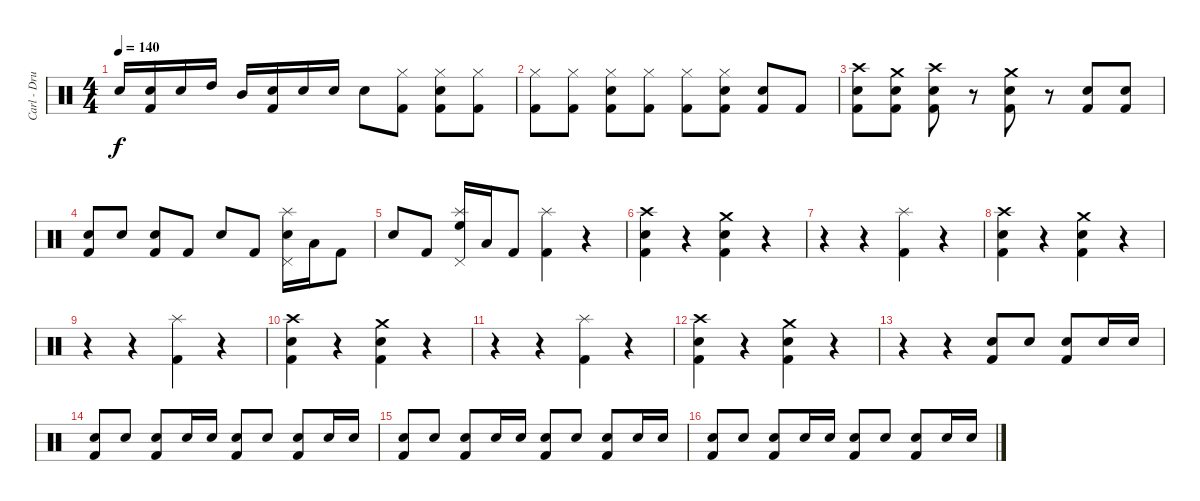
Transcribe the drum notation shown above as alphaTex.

\track ("Carl - Drums" "Carl - Dru") {instrument percussion}
\staff {score}
\articulation defaults
\ts (4 4)
\tempo 140
\clef neutral
\ks c "Electric Snare (hit)".16{dy f}
("Electric Snare (hit)" "Kick (hit) 2").16 "Electric Snare (hit)".16 "High Tom (hit)".16 "Mid Tom (hit)".16 ("Electric Snare (hit)" "Kick (hit) 2").16 "Electric Snare (hit)".16 "Electric Snare (hit)".16 "Electric Snare (hit)".8 ("Hi-Hat (closed)" "Kick (hit) 2").8 ("Hi-Hat (closed)" "Electric Snare (hit)" "Kick (hit) 2").8 ("Hi-Hat (closed)" "Kick (hit) 2").8 |
("Hi-Hat (closed)" "Kick (hit) 2").8 ("Hi-Hat (closed)" "Kick (hit) 2").8 ("Hi-Hat (closed)" "Electric Snare (hit)" "Kick (hit) 2").8 ("Hi-Hat (closed)" "Kick (hit) 2").8 ("Hi-Hat (closed)" "Kick (hit) 2").8 ("Hi-Hat (closed)" "Electric Snare (hit)" "Kick (hit) 2").8 ("Electric Snare (hit)" "Kick (hit) 2").8 "Kick (hit) 2".8 |
("Crash high (hit)" "Electric Snare (hit)" "Kick (hit) 2").8 ("Crash medium (hit)" "Electric Snare (hit)" "Kick (hit) 2").8 ("Crash high (hit)" "Electric Snare (hit)" "Kick (hit) 2").8 r.8 ("Crash medium (hit)" "Electric Snare (hit)" "Kick (hit) 2").8 r.8 ("Electric Snare (hit)" "Kick (hit) 2").8 ("Electric Snare (hit)" "Kick (hit) 2").8 |
("Electric Snare (hit)" "Kick (hit) 2").8 "Electric Snare (hit)".8 ("Electric Snare (hit)" "Kick (hit) 2").8 "Kick (hit) 2".8 "Electric Snare (hit)".8 "Kick (hit) 2".8 ("Pedal Hi-Hat (hit)" "Electric Snare (hit)" "Splash (hit)").16 "Low Tom (hit)".16 "Kick (hit) 2".8 |
"Electric Snare (hit)".8 "Kick (hit) 2".8 ("Pedal Hi-Hat (hit)" "High Floor Tom (hit)" "Splash (hit)").16 "Low Tom (hit)".16 "Kick (hit) 2".8 ("Splash (hit)" "Kick (hit) 2").4 r.4 |
("Crash high (hit)" "Electric Snare (hit)" "Kick (hit) 2").4 r.4 ("Crash medium (hit)" "Electric Snare (hit)" "Kick (hit) 2").4 r.4 |
r.4 r.4 ("Splash (hit)" "Kick (hit) 2").4 r.4 |
("Crash high (hit)" "Electric Snare (hit)" "Kick (hit) 2").4 r.4 ("Crash medium (hit)" "Electric Snare (hit)" "Kick (hit) 2").4 r.4 |
r.4 r.4 ("Splash (hit)" "Kick (hit) 2").4 r.4 |
("Crash high (hit)" "Electric Snare (hit)" "Kick (hit) 2").4 r.4 ("Crash medium (hit)" "Electric Snare (hit)" "Kick (hit) 2").4 r.4 |
r.4 r.4 ("Splash (hit)" "Kick (hit) 2").4 r.4 |
("Crash high (hit)" "Electric Snare (hit)" "Kick (hit) 2").4 r.4 ("Crash medium (hit)" "Electric Snare (hit)" "Kick (hit) 2").4 r.4 |
r.4 r.4 ("Electric Snare (hit)" "Kick (hit) 2").8 "Electric Snare (hit)".8 ("Electric Snare (hit)" "Kick (hit) 2").8 "Electric Snare (hit)".16 "Electric Snare (hit)".16 |
("Electric Snare (hit)" "Kick (hit) 2").8 "Electric Snare (hit)".8 ("Electric Snare (hit)" "Kick (hit) 2").8 "Electric Snare (hit)".16 "Electric Snare (hit)".16 ("Electric Snare (hit)" "Kick (hit) 2").8 "Electric Snare (hit)".8 ("Electric Snare (hit)" "Kick (hit) 2").8 "Electric Snare (hit)".16 "Electric Snare (hit)".16 |
("Electric Snare (hit)" "Kick (hit) 2").8 "Electric Snare (hit)".8 ("Electric Snare (hit)" "Kick (hit) 2").8 "Electric Snare (hit)".16 "Electric Snare (hit)".16 ("Electric Snare (hit)" "Kick (hit) 2").8 "Electric Snare (hit)".8 ("Electric Snare (hit)" "Kick (hit) 2").8 "Electric Snare (hit)".16 "Electric Snare (hit)".16 |
("Electric Snare (hit)" "Kick (hit) 2").8 "Electric Snare (hit)".8 ("Electric Snare (hit)" "Kick (hit) 2").8 "Electric Snare (hit)".16 "Electric Snare (hit)".16 ("Electric Snare (hit)" "Kick (hit) 2").8 "Electric Snare (hit)".8 ("Electric Snare (hit)" "Kick (hit) 2").8 "Electric Snare (hit)".16 "Electric Snare (hit)".16
